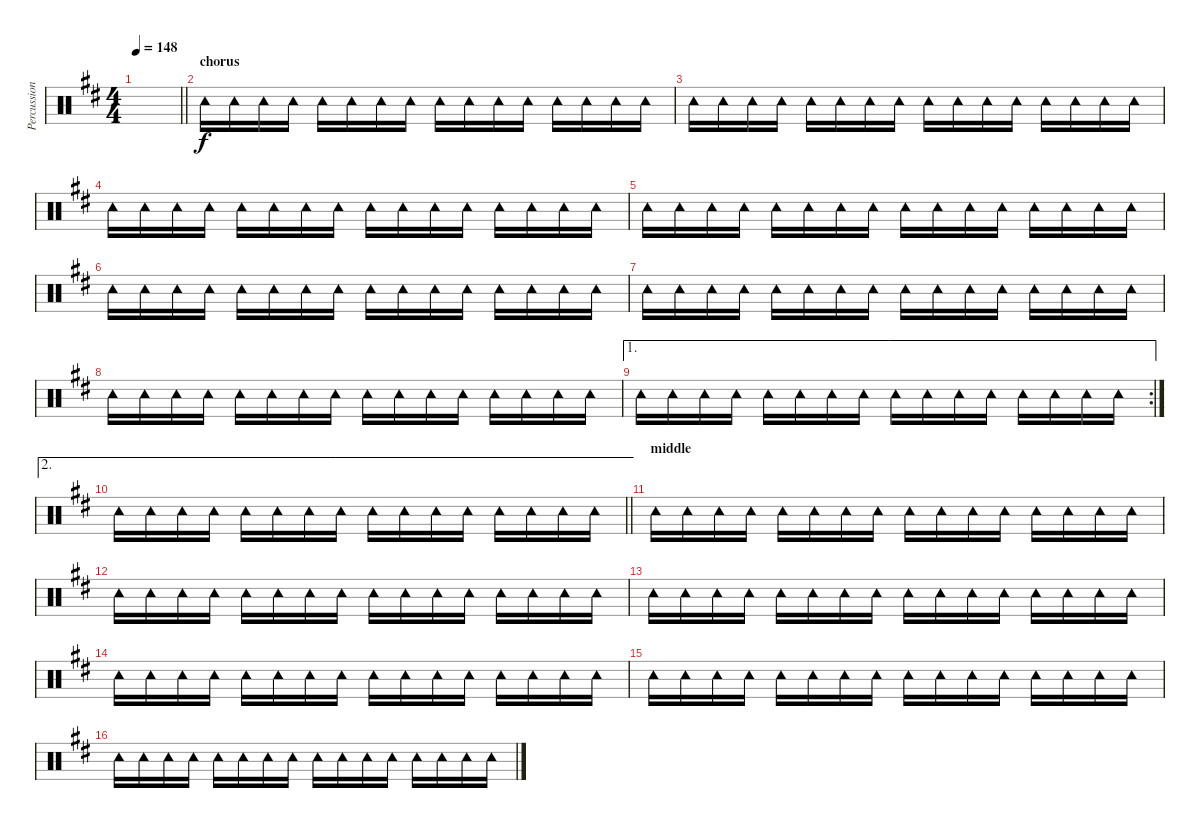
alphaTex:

\track ("Percussioni" "Percussion") {instrument percussion}
\staff {score}
\articulation defaults
\ts (4 4)
\tempo 148
\clef neutral
\barLineRight lightlight
\ks d
|
\section ("" "chorus")
"Tambourine (hit)".16 "Tambourine (hit)".16 "Tambourine (hit)".16 "Tambourine (hit)".16 "Tambourine (hit)".16 "Tambourine (hit)".16 "Tambourine (hit)".16 "Tambourine (hit)".16 "Tambourine (hit)".16 "Tambourine (hit)".16 "Tambourine (hit)".16 "Tambourine (hit)".16 "Tambourine (hit)".16 "Tambourine (hit)".16 "Tambourine (hit)".16 "Tambourine (hit)".16 |
"Tambourine (hit)".16 "Tambourine (hit)".16 "Tambourine (hit)".16 "Tambourine (hit)".16 "Tambourine (hit)".16 "Tambourine (hit)".16 "Tambourine (hit)".16 "Tambourine (hit)".16 "Tambourine (hit)".16 "Tambourine (hit)".16 "Tambourine (hit)".16 "Tambourine (hit)".16 "Tambourine (hit)".16 "Tambourine (hit)".16 "Tambourine (hit)".16 "Tambourine (hit)".16 |
"Tambourine (hit)".16 "Tambourine (hit)".16 "Tambourine (hit)".16 "Tambourine (hit)".16 "Tambourine (hit)".16 "Tambourine (hit)".16 "Tambourine (hit)".16 "Tambourine (hit)".16 "Tambourine (hit)".16 "Tambourine (hit)".16 "Tambourine (hit)".16 "Tambourine (hit)".16 "Tambourine (hit)".16 "Tambourine (hit)".16 "Tambourine (hit)".16 "Tambourine (hit)".16 |
"Tambourine (hit)".16 "Tambourine (hit)".16 "Tambourine (hit)".16 "Tambourine (hit)".16 "Tambourine (hit)".16 "Tambourine (hit)".16 "Tambourine (hit)".16 "Tambourine (hit)".16 "Tambourine (hit)".16 "Tambourine (hit)".16 "Tambourine (hit)".16 "Tambourine (hit)".16 "Tambourine (hit)".16 "Tambourine (hit)".16 "Tambourine (hit)".16 "Tambourine (hit)".16 |
"Tambourine (hit)".16 "Tambourine (hit)".16 "Tambourine (hit)".16 "Tambourine (hit)".16 "Tambourine (hit)".16 "Tambourine (hit)".16 "Tambourine (hit)".16 "Tambourine (hit)".16 "Tambourine (hit)".16 "Tambourine (hit)".16 "Tambourine (hit)".16 "Tambourine (hit)".16 "Tambourine (hit)".16 "Tambourine (hit)".16 "Tambourine (hit)".16 "Tambourine (hit)".16 |
"Tambourine (hit)".16 "Tambourine (hit)".16 "Tambourine (hit)".16 "Tambourine (hit)".16 "Tambourine (hit)".16 "Tambourine (hit)".16 "Tambourine (hit)".16 "Tambourine (hit)".16 "Tambourine (hit)".16 "Tambourine (hit)".16 "Tambourine (hit)".16 "Tambourine (hit)".16 "Tambourine (hit)".16 "Tambourine (hit)".16 "Tambourine (hit)".16 "Tambourine (hit)".16 |
"Tambourine (hit)".16 "Tambourine (hit)".16 "Tambourine (hit)".16 "Tambourine (hit)".16 "Tambourine (hit)".16 "Tambourine (hit)".16 "Tambourine (hit)".16 "Tambourine (hit)".16 "Tambourine (hit)".16 "Tambourine (hit)".16 "Tambourine (hit)".16 "Tambourine (hit)".16 "Tambourine (hit)".16 "Tambourine (hit)".16 "Tambourine (hit)".16 "Tambourine (hit)".16 |
\ae 1
\rc 2 "Tambourine (hit)".16 "Tambourine (hit)".16 "Tambourine (hit)".16 "Tambourine (hit)".16 "Tambourine (hit)".16 "Tambourine (hit)".16 "Tambourine (hit)".16 "Tambourine (hit)".16 "Tambourine (hit)".16 "Tambourine (hit)".16 "Tambourine (hit)".16 "Tambourine (hit)".16 "Tambourine (hit)".16 "Tambourine (hit)".16 "Tambourine (hit)".16 "Tambourine (hit)".16
|
\ae 2
\barLineRight lightlight "Tambourine (hit)".16 "Tambourine (hit)".16 "Tambourine (hit)".16 "Tambourine (hit)".16 "Tambourine (hit)".16 "Tambourine (hit)".16 "Tambourine (hit)".16 "Tambourine (hit)".16 "Tambourine (hit)".16 "Tambourine (hit)".16 "Tambourine (hit)".16 "Tambourine (hit)".16 "Tambourine (hit)".16 "Tambourine (hit)".16 "Tambourine (hit)".16 "Tambourine (hit)".16
|
\section ("" "middle")
"Tambourine (hit)".16 "Tambourine (hit)".16 "Tambourine (hit)".16 "Tambourine (hit)".16 "Tambourine (hit)".16 "Tambourine (hit)".16 "Tambourine (hit)".16 "Tambourine (hit)".16 "Tambourine (hit)".16 "Tambourine (hit)".16 "Tambourine (hit)".16 "Tambourine (hit)".16 "Tambourine (hit)".16 "Tambourine (hit)".16 "Tambourine (hit)".16 "Tambourine (hit)".16 |
"Tambourine (hit)".16 "Tambourine (hit)".16 "Tambourine (hit)".16 "Tambourine (hit)".16 "Tambourine (hit)".16 "Tambourine (hit)".16 "Tambourine (hit)".16 "Tambourine (hit)".16 "Tambourine (hit)".16 "Tambourine (hit)".16 "Tambourine (hit)".16 "Tambourine (hit)".16 "Tambourine (hit)".16 "Tambourine (hit)".16 "Tambourine (hit)".16 "Tambourine (hit)".16 |
"Tambourine (hit)".16 "Tambourine (hit)".16 "Tambourine (hit)".16 "Tambourine (hit)".16 "Tambourine (hit)".16 "Tambourine (hit)".16 "Tambourine (hit)".16 "Tambourine (hit)".16 "Tambourine (hit)".16 "Tambourine (hit)".16 "Tambourine (hit)".16 "Tambourine (hit)".16 "Tambourine (hit)".16 "Tambourine (hit)".16 "Tambourine (hit)".16 "Tambourine (hit)".16 |
"Tambourine (hit)".16 "Tambourine (hit)".16 "Tambourine (hit)".16 "Tambourine (hit)".16 "Tambourine (hit)".16 "Tambourine (hit)".16 "Tambourine (hit)".16 "Tambourine (hit)".16 "Tambourine (hit)".16 "Tambourine (hit)".16 "Tambourine (hit)".16 "Tambourine (hit)".16 "Tambourine (hit)".16 "Tambourine (hit)".16 "Tambourine (hit)".16 "Tambourine (hit)".16 |
"Tambourine (hit)".16 "Tambourine (hit)".16 "Tambourine (hit)".16 "Tambourine (hit)".16 "Tambourine (hit)".16 "Tambourine (hit)".16 "Tambourine (hit)".16 "Tambourine (hit)".16 "Tambourine (hit)".16 "Tambourine (hit)".16 "Tambourine (hit)".16 "Tambourine (hit)".16 "Tambourine (hit)".16 "Tambourine (hit)".16 "Tambourine (hit)".16 "Tambourine (hit)".16 |
"Tambourine (hit)".16 "Tambourine (hit)".16 "Tambourine (hit)".16 "Tambourine (hit)".16 "Tambourine (hit)".16 "Tambourine (hit)".16 "Tambourine (hit)".16 "Tambourine (hit)".16 "Tambourine (hit)".16 "Tambourine (hit)".16 "Tambourine (hit)".16 "Tambourine (hit)".16 "Tambourine (hit)".16 "Tambourine (hit)".16 "Tambourine (hit)".16 "Tambourine (hit)".16
